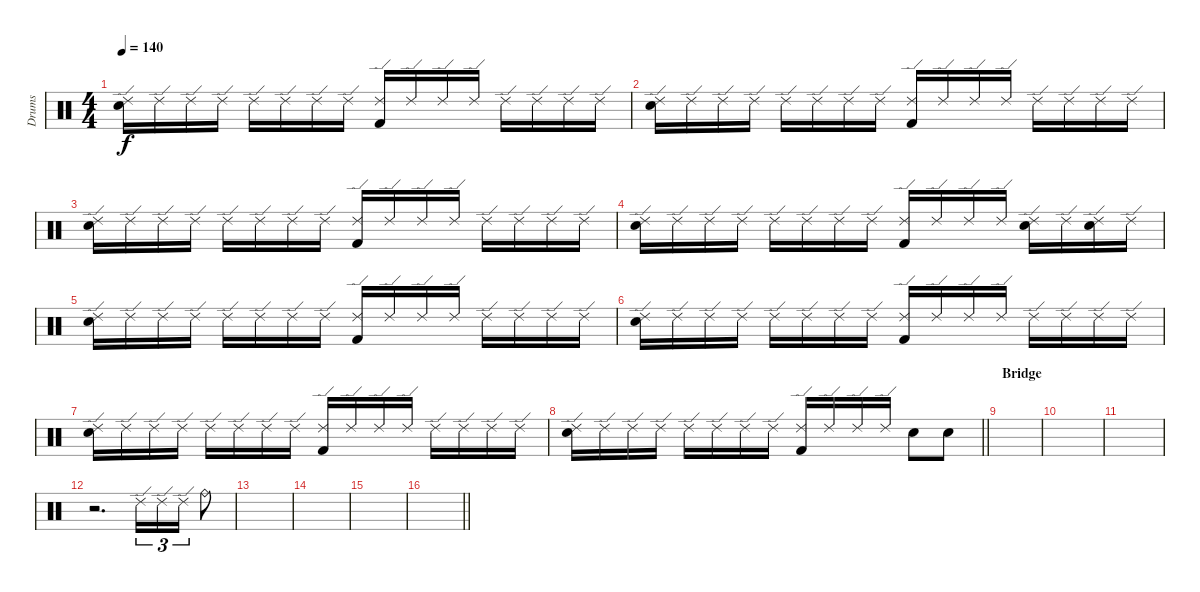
\track ("Drums " "Drums ") {instrument percussion}
\staff {score}
\articulation defaults
\ts (4 4)
\tempo 140
\clef neutral
\ks c
("Ride (edge) 2" "Electric Snare (hit)").16{dy f} "Ride (edge) 2".16 "Ride (edge) 2".16 "Ride (edge) 2".16 "Ride (edge) 2".16 "Ride (edge) 2".16 "Ride (edge) 2".16 "Ride (edge) 2".16 ("Ride (edge) 2" "Kick (hit) 2").16 "Ride (edge) 2".16 "Ride (edge) 2".16 "Ride (edge) 2".16 "Ride (edge) 2".16 "Ride (edge) 2".16 "Ride (edge) 2".16 "Ride (edge) 2".16 |
("Ride (edge) 2" "Electric Snare (hit)").16 "Ride (edge) 2".16 "Ride (edge) 2".16 "Ride (edge) 2".16 "Ride (edge) 2".16 "Ride (edge) 2".16 "Ride (edge) 2".16 "Ride (edge) 2".16 ("Ride (edge) 2" "Kick (hit) 2").16 "Ride (edge) 2".16 "Ride (edge) 2".16 "Ride (edge) 2".16 "Ride (edge) 2".16 "Ride (edge) 2".16 "Ride (edge) 2".16 "Ride (edge) 2".16 |
("Ride (edge) 2" "Electric Snare (hit)").16 "Ride (edge) 2".16 "Ride (edge) 2".16 "Ride (edge) 2".16 "Ride (edge) 2".16 "Ride (edge) 2".16 "Ride (edge) 2".16 "Ride (edge) 2".16 ("Ride (edge) 2" "Kick (hit) 2").16 "Ride (edge) 2".16 "Ride (edge) 2".16 "Ride (edge) 2".16 "Ride (edge) 2".16 "Ride (edge) 2".16 "Ride (edge) 2".16 "Ride (edge) 2".16 |
("Ride (edge) 2" "Electric Snare (hit)").16 "Ride (edge) 2".16 "Ride (edge) 2".16 "Ride (edge) 2".16 "Ride (edge) 2".16 "Ride (edge) 2".16 "Ride (edge) 2".16 "Ride (edge) 2".16 ("Ride (edge) 2" "Kick (hit) 2").16 "Ride (edge) 2".16 "Ride (edge) 2".16 "Ride (edge) 2".16 ("Ride (edge) 2" "Electric Snare (hit)").16 "Ride (edge) 2".16 ("Ride (edge) 2" "Electric Snare (hit)").16 "Ride (edge) 2".16 |
("Ride (edge) 2" "Electric Snare (hit)").16 "Ride (edge) 2".16 "Ride (edge) 2".16 "Ride (edge) 2".16 "Ride (edge) 2".16 "Ride (edge) 2".16 "Ride (edge) 2".16 "Ride (edge) 2".16 ("Ride (edge) 2" "Kick (hit) 2").16 "Ride (edge) 2".16 "Ride (edge) 2".16 "Ride (edge) 2".16 "Ride (edge) 2".16 "Ride (edge) 2".16 "Ride (edge) 2".16 "Ride (edge) 2".16 |
("Ride (edge) 2" "Electric Snare (hit)").16 "Ride (edge) 2".16 "Ride (edge) 2".16 "Ride (edge) 2".16 "Ride (edge) 2".16 "Ride (edge) 2".16 "Ride (edge) 2".16 "Ride (edge) 2".16 ("Ride (edge) 2" "Kick (hit) 2").16 "Ride (edge) 2".16 "Ride (edge) 2".16 "Ride (edge) 2".16 "Ride (edge) 2".16 "Ride (edge) 2".16 "Ride (edge) 2".16 "Ride (edge) 2".16 |
("Ride (edge) 2" "Electric Snare (hit)").16 "Ride (edge) 2".16 "Ride (edge) 2".16 "Ride (edge) 2".16 "Ride (edge) 2".16 "Ride (edge) 2".16 "Ride (edge) 2".16 "Ride (edge) 2".16 ("Ride (edge) 2" "Kick (hit) 2").16 "Ride (edge) 2".16 "Ride (edge) 2".16 "Ride (edge) 2".16 "Ride (edge) 2".16 "Ride (edge) 2".16 "Ride (edge) 2".16 "Ride (edge) 2".16 |
\barLineRight lightlight
("Ride (edge) 2" "Electric Snare (hit)").16 "Ride (edge) 2".16 "Ride (edge) 2".16 "Ride (edge) 2".16 "Ride (edge) 2".16 "Ride (edge) 2".16 "Ride (edge) 2".16 "Ride (edge) 2".16 ("Ride (edge) 2" "Kick (hit) 2").16 "Ride (edge) 2".16 "Ride (edge) 2".16 "Ride (edge) 2".16 "Electric Snare (hit)".8 "Electric Snare (hit)".8 |
\section ("" "Bridge ")
|
|
|
r.2{d} "Ride (edge) 2".16{tu (3 2)} "Ride (edge) 2".16{tu (3 2)} "Ride (edge) 2".16{tu (3 2)} "Ride (bell)".8 |
|
|
|
\barLineRight lightlight
